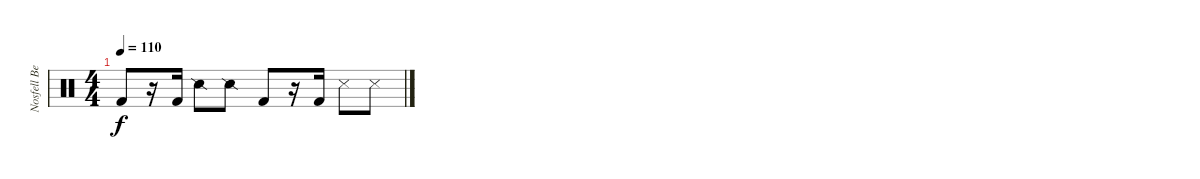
\track ("Nosfell Beat Box" "Nosfell Be") {instrument percussion}
\staff {score}
\articulation defaults
\ts (4 4)
\tempo 110
\clef neutral
\ks c "Kick (hit) 2".8{dy f}
r.16 "Kick (hit) 2".16 "Snare (side stick) 2".8 "Snare (side stick) 2".8 "Kick (hit) 2".8 r.16 "Kick (hit) 2".16 "Snare (side stick) 3".8 "Snare (side stick) 3".8
